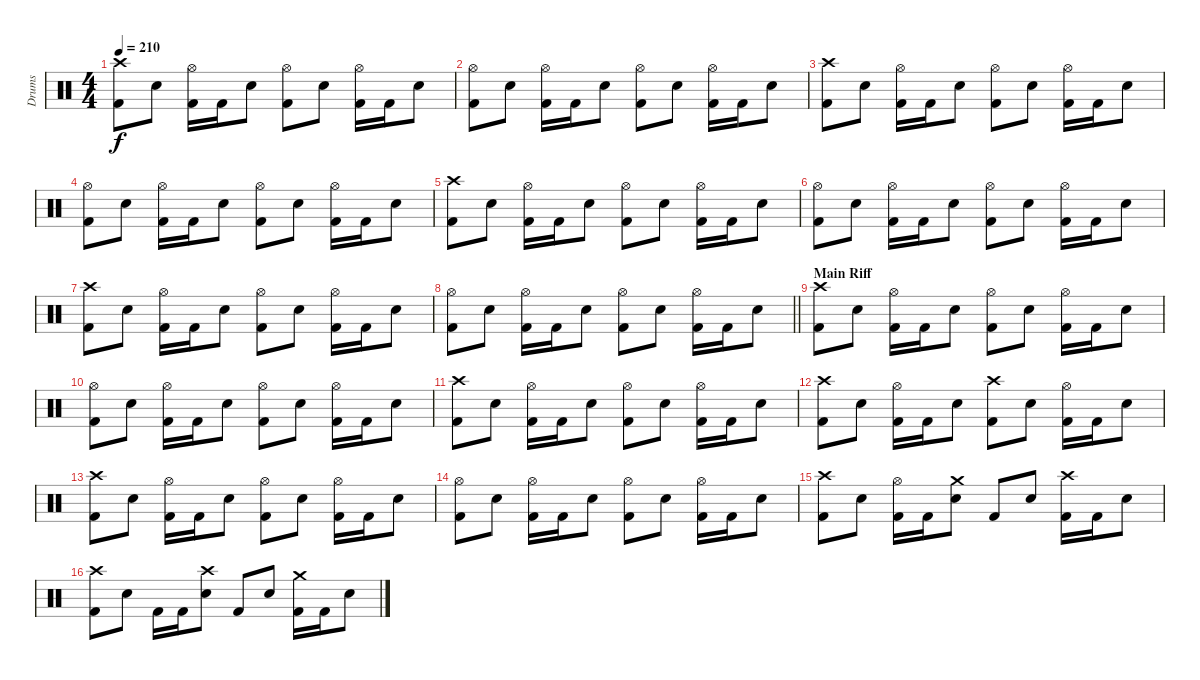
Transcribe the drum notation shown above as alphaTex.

\track ("Drums" "Drums") {instrument percussion}
\staff {score}
\articulation defaults
\ts (4 4)
\tempo 210
\clef neutral
\ks c
("Crash high (hit)" "Kick (hit) 2").8{dy f} "Snare (hit) 2".8 ("Hi-Hat (open)" "Kick (hit) 2").16 "Kick (hit) 2".16 "Snare (hit) 2".8 ("Hi-Hat (open)" "Kick (hit) 2").8 "Snare (hit) 2".8 ("Hi-Hat (open)" "Kick (hit) 2").16 "Kick (hit) 2".16 "Snare (hit) 2".8 |
("Hi-Hat (open)" "Kick (hit) 2").8 "Snare (hit) 2".8 ("Hi-Hat (open)" "Kick (hit) 2").16 "Kick (hit) 2".16 "Snare (hit) 2".8 ("Hi-Hat (open)" "Kick (hit) 2").8 "Snare (hit) 2".8 ("Hi-Hat (open)" "Kick (hit) 2").16 "Kick (hit) 2".16 "Snare (hit) 2".8 |
("Crash high (hit)" "Kick (hit) 2").8 "Snare (hit) 2".8 ("Hi-Hat (open)" "Kick (hit) 2").16 "Kick (hit) 2".16 "Snare (hit) 2".8 ("Hi-Hat (open)" "Kick (hit) 2").8 "Snare (hit) 2".8 ("Hi-Hat (open)" "Kick (hit) 2").16 "Kick (hit) 2".16 "Snare (hit) 2".8 |
("Hi-Hat (open)" "Kick (hit) 2").8 "Snare (hit) 2".8 ("Hi-Hat (open)" "Kick (hit) 2").16 "Kick (hit) 2".16 "Snare (hit) 2".8 ("Hi-Hat (open)" "Kick (hit) 2").8 "Snare (hit) 2".8 ("Hi-Hat (open)" "Kick (hit) 2").16 "Kick (hit) 2".16 "Snare (hit) 2".8 |
("Crash high (hit)" "Kick (hit) 2").8 "Snare (hit) 2".8 ("Hi-Hat (open)" "Kick (hit) 2").16 "Kick (hit) 2".16 "Snare (hit) 2".8 ("Hi-Hat (open)" "Kick (hit) 2").8 "Snare (hit) 2".8 ("Hi-Hat (open)" "Kick (hit) 2").16 "Kick (hit) 2".16 "Snare (hit) 2".8 |
("Hi-Hat (open)" "Kick (hit) 2").8 "Snare (hit) 2".8 ("Hi-Hat (open)" "Kick (hit) 2").16 "Kick (hit) 2".16 "Snare (hit) 2".8 ("Hi-Hat (open)" "Kick (hit) 2").8 "Snare (hit) 2".8 ("Hi-Hat (open)" "Kick (hit) 2").16 "Kick (hit) 2".16 "Snare (hit) 2".8 |
("Crash high (hit)" "Kick (hit) 2").8 "Snare (hit) 2".8 ("Hi-Hat (open)" "Kick (hit) 2").16 "Kick (hit) 2".16 "Snare (hit) 2".8 ("Hi-Hat (open)" "Kick (hit) 2").8 "Snare (hit) 2".8 ("Hi-Hat (open)" "Kick (hit) 2").16 "Kick (hit) 2".16 "Snare (hit) 2".8 |
\barLineRight lightlight
("Hi-Hat (open)" "Kick (hit) 2").8 "Snare (hit) 2".8 ("Hi-Hat (open)" "Kick (hit) 2").16 "Kick (hit) 2".16 "Snare (hit) 2".8 ("Hi-Hat (open)" "Kick (hit) 2").8 "Snare (hit) 2".8 ("Hi-Hat (open)" "Kick (hit) 2").16 "Kick (hit) 2".16 "Snare (hit) 2".8 |
\section ("" "Main Riff")
("Crash high (hit)" "Kick (hit) 2").8 "Snare (hit) 2".8 ("Hi-Hat (open)" "Kick (hit) 2").16 "Kick (hit) 2".16 "Snare (hit) 2".8 ("Hi-Hat (open)" "Kick (hit) 2").8 "Snare (hit) 2".8 ("Hi-Hat (open)" "Kick (hit) 2").16 "Kick (hit) 2".16 "Snare (hit) 2".8 |
("Hi-Hat (open)" "Kick (hit) 2").8 "Snare (hit) 2".8 ("Hi-Hat (open)" "Kick (hit) 2").16 "Kick (hit) 2".16 "Snare (hit) 2".8 ("Hi-Hat (open)" "Kick (hit) 2").8 "Snare (hit) 2".8 ("Hi-Hat (open)" "Kick (hit) 2").16 "Kick (hit) 2".16 "Snare (hit) 2".8 |
("Crash high (hit)" "Kick (hit) 2").8 "Snare (hit) 2".8 ("Hi-Hat (open)" "Kick (hit) 2").16 "Kick (hit) 2".16 "Snare (hit) 2".8 ("Hi-Hat (open)" "Kick (hit) 2").8 "Snare (hit) 2".8 ("Hi-Hat (open)" "Kick (hit) 2").16 "Kick (hit) 2".16 "Snare (hit) 2".8 |
("Crash high (hit)" "Kick (hit) 2").8 "Snare (hit) 2".8 ("Hi-Hat (open)" "Kick (hit) 2").16 "Kick (hit) 2".16 "Snare (hit) 2".8 ("Crash high (hit)" "Kick (hit) 2").8 "Snare (hit) 2".8 ("Hi-Hat (open)" "Kick (hit) 2").16 "Kick (hit) 2".16 "Snare (hit) 2".8 |
("Crash high (hit)" "Kick (hit) 2").8 "Snare (hit) 2".8 ("Hi-Hat (open)" "Kick (hit) 2").16 "Kick (hit) 2".16 "Snare (hit) 2".8 ("Hi-Hat (open)" "Kick (hit) 2").8 "Snare (hit) 2".8 ("Hi-Hat (open)" "Kick (hit) 2").16 "Kick (hit) 2".16 "Snare (hit) 2".8 |
("Hi-Hat (open)" "Kick (hit) 2").8 "Snare (hit) 2".8 ("Hi-Hat (open)" "Kick (hit) 2").16 "Kick (hit) 2".16 "Snare (hit) 2".8 ("Hi-Hat (open)" "Kick (hit) 2").8 "Snare (hit) 2".8 ("Hi-Hat (open)" "Kick (hit) 2").16 "Kick (hit) 2".16 "Snare (hit) 2".8 |
("Crash high (hit)" "Kick (hit) 2").8 "Snare (hit) 2".8 ("Hi-Hat (open)" "Kick (hit) 2").16 "Kick (hit) 2".16 ("Crash medium (hit)" "Snare (hit) 2").8 "Kick (hit) 2".8 "Snare (hit) 2".8 ("Crash high (hit)" "Kick (hit) 2").16 "Kick (hit) 2".16 "Snare (hit) 2".8 |
("Crash high (hit)" "Kick (hit) 2").8 "Snare (hit) 2".8 "Kick (hit) 2".16 "Kick (hit) 2".16 ("Crash high (hit)" "Snare (hit) 2").8 "Kick (hit) 2".8 "Snare (hit) 2".8 ("Crash medium (hit)" "Kick (hit) 2").16 "Kick (hit) 2".16 "Snare (hit) 2".8
